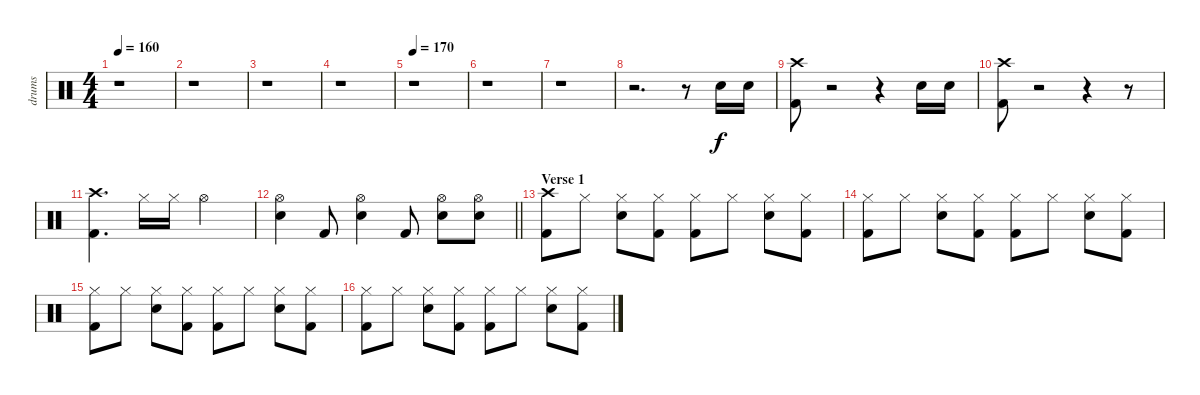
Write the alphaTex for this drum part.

\track ("drums" "drums") {instrument percussion}
\staff {score}
\articulation defaults
\ts (4 4)
\tempo 160
\tempo 80
\tempo 160
\clef neutral
\ks c
r.1{dy f} |
r.1 |
r.1 |
r.1 |
\tempo 170
r.1 |
r.1 |
r.1 |
r.2{d} r.8 "Snare (hit) 2".16 "Snare (hit) 2".16 |
("Crash high (hit)" "Kick (hit) 2").8 r.2 r.4 "Snare (hit) 2".16 "Snare (hit) 2".16 |
("Crash high (hit)" "Kick (hit) 2").8 r.2 r.4 r.8 |
("Crash high (hit)" "Kick (hit) 2").4{d} "Hi-Hat (closed)".16 "Hi-Hat (closed)".16 "Hi-Hat (open)".2 |
\barLineRight lightlight
("Hi-Hat (open)" "Snare (hit) 2").4 "Kick (hit) 2".8 ("Hi-Hat (open)" "Snare (hit) 2").4 "Kick (hit) 2".8 ("Hi-Hat (open)" "Snare (hit) 2").8 ("Hi-Hat (open)" "Snare (hit) 2").8 |
\section ("" "Verse 1")
("Crash high (hit)" "Kick (hit) 2").8 "Hi-Hat (closed)".8 ("Hi-Hat (closed)" "Snare (hit) 2").8 ("Hi-Hat (closed)" "Kick (hit) 2").8 ("Hi-Hat (closed)" "Kick (hit) 2").8 "Hi-Hat (closed)".8 ("Hi-Hat (closed)" "Snare (hit) 2").8 ("Hi-Hat (closed)" "Kick (hit) 2").8 |
("Hi-Hat (closed)" "Kick (hit) 2").8 "Hi-Hat (closed)".8 ("Hi-Hat (closed)" "Snare (hit) 2").8 ("Hi-Hat (closed)" "Kick (hit) 2").8 ("Hi-Hat (closed)" "Kick (hit) 2").8 "Hi-Hat (closed)".8 ("Hi-Hat (closed)" "Snare (hit) 2").8 ("Hi-Hat (closed)" "Kick (hit) 2").8 |
("Hi-Hat (closed)" "Kick (hit) 2").8 "Hi-Hat (closed)".8 ("Hi-Hat (closed)" "Snare (hit) 2").8 ("Hi-Hat (closed)" "Kick (hit) 2").8 ("Hi-Hat (closed)" "Kick (hit) 2").8 "Hi-Hat (closed)".8 ("Hi-Hat (closed)" "Snare (hit) 2").8 ("Hi-Hat (closed)" "Kick (hit) 2").8 |
("Hi-Hat (closed)" "Kick (hit) 2").8 "Hi-Hat (closed)".8 ("Hi-Hat (closed)" "Snare (hit) 2").8 ("Hi-Hat (closed)" "Kick (hit) 2").8 ("Hi-Hat (closed)" "Kick (hit) 2").8 "Hi-Hat (closed)".8 ("Hi-Hat (closed)" "Snare (hit) 2").8 ("Hi-Hat (closed)" "Kick (hit) 2").8
